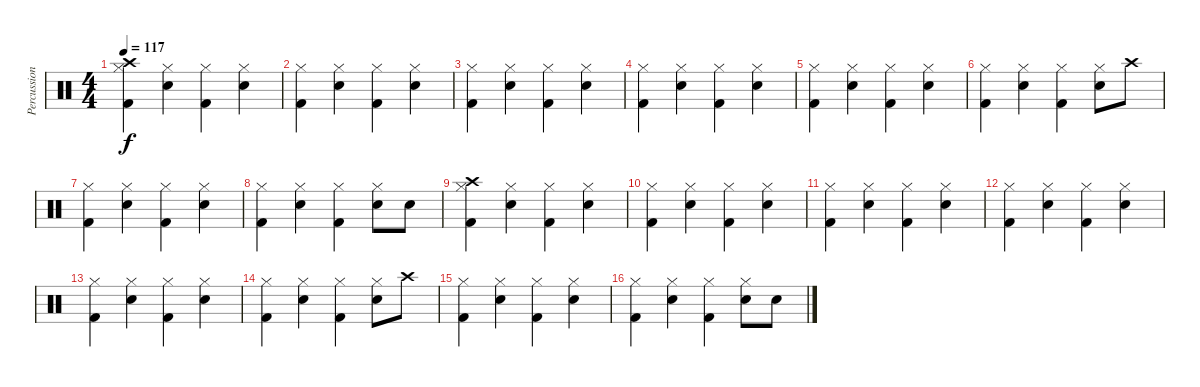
\track ("Percussion" "Percussion") {instrument percussion}
\staff {score}
\articulation defaults
\ts (4 4)
\tempo 117
\clef neutral
\ks c
("Hi-Hat (closed)" "Crash high (hit)" "Kick (hit) 2").4{dy f} ("Hi-Hat (closed)" "Metronome (bell)").4 ("Hi-Hat (closed)" "Kick (hit) 2").4 ("Hi-Hat (closed)" "Metronome (bell)").4 |
("Hi-Hat (closed)" "Kick (hit) 2").4 ("Hi-Hat (closed)" "Metronome (bell)").4 ("Hi-Hat (closed)" "Kick (hit) 2").4 ("Hi-Hat (closed)" "Metronome (bell)").4 |
("Hi-Hat (closed)" "Kick (hit) 2").4 ("Hi-Hat (closed)" "Metronome (bell)").4 ("Hi-Hat (closed)" "Kick (hit) 2").4 ("Hi-Hat (closed)" "Metronome (bell)").4 |
("Hi-Hat (closed)" "Kick (hit) 2").4 ("Hi-Hat (closed)" "Metronome (bell)").4 ("Hi-Hat (closed)" "Kick (hit) 2").4 ("Hi-Hat (closed)" "Metronome (bell)").4 |
("Hi-Hat (closed)" "Kick (hit) 2").4 ("Hi-Hat (closed)" "Metronome (bell)").4 ("Hi-Hat (closed)" "Kick (hit) 2").4 ("Hi-Hat (closed)" "Metronome (bell)").4 |
("Hi-Hat (closed)" "Kick (hit) 2").4 ("Hi-Hat (closed)" "Metronome (bell)").4 ("Hi-Hat (closed)" "Kick (hit) 2").4 ("Hi-Hat (closed)" "Metronome (bell)").8 "Crash high (hit)".8 |
("Hi-Hat (closed)" "Kick (hit) 2").4 ("Hi-Hat (closed)" "Metronome (bell)").4 ("Hi-Hat (closed)" "Kick (hit) 2").4 ("Hi-Hat (closed)" "Metronome (bell)").4 |
("Hi-Hat (closed)" "Kick (hit) 2").4 ("Hi-Hat (closed)" "Metronome (bell)").4 ("Hi-Hat (closed)" "Kick (hit) 2").4 ("Hi-Hat (closed)" "Metronome (bell)").8 "Metronome (bell)".8 |
("Hi-Hat (closed)" "Crash high (hit)" "Kick (hit) 2").4 ("Hi-Hat (closed)" "Metronome (bell)").4 ("Hi-Hat (closed)" "Kick (hit) 2").4 ("Hi-Hat (closed)" "Metronome (bell)").4 |
("Hi-Hat (closed)" "Kick (hit) 2").4 ("Hi-Hat (closed)" "Metronome (bell)").4 ("Hi-Hat (closed)" "Kick (hit) 2").4 ("Hi-Hat (closed)" "Metronome (bell)").4 |
("Hi-Hat (closed)" "Kick (hit) 2").4 ("Hi-Hat (closed)" "Metronome (bell)").4 ("Hi-Hat (closed)" "Kick (hit) 2").4 ("Hi-Hat (closed)" "Metronome (bell)").4 |
("Hi-Hat (closed)" "Kick (hit) 2").4 ("Hi-Hat (closed)" "Metronome (bell)").4 ("Hi-Hat (closed)" "Kick (hit) 2").4 ("Hi-Hat (closed)" "Metronome (bell)").4 |
("Hi-Hat (closed)" "Kick (hit) 2").4 ("Hi-Hat (closed)" "Metronome (bell)").4 ("Hi-Hat (closed)" "Kick (hit) 2").4 ("Hi-Hat (closed)" "Metronome (bell)").4 |
("Hi-Hat (closed)" "Kick (hit) 2").4 ("Hi-Hat (closed)" "Metronome (bell)").4 ("Hi-Hat (closed)" "Kick (hit) 2").4 ("Hi-Hat (closed)" "Metronome (bell)").8 "Crash high (hit)".8 |
("Hi-Hat (closed)" "Kick (hit) 2").4 ("Hi-Hat (closed)" "Metronome (bell)").4 ("Hi-Hat (closed)" "Kick (hit) 2").4 ("Hi-Hat (closed)" "Metronome (bell)").4 |
("Hi-Hat (closed)" "Kick (hit) 2").4 ("Hi-Hat (closed)" "Metronome (bell)").4 ("Hi-Hat (closed)" "Kick (hit) 2").4 ("Hi-Hat (closed)" "Metronome (bell)").8 "Metronome (bell)".8
